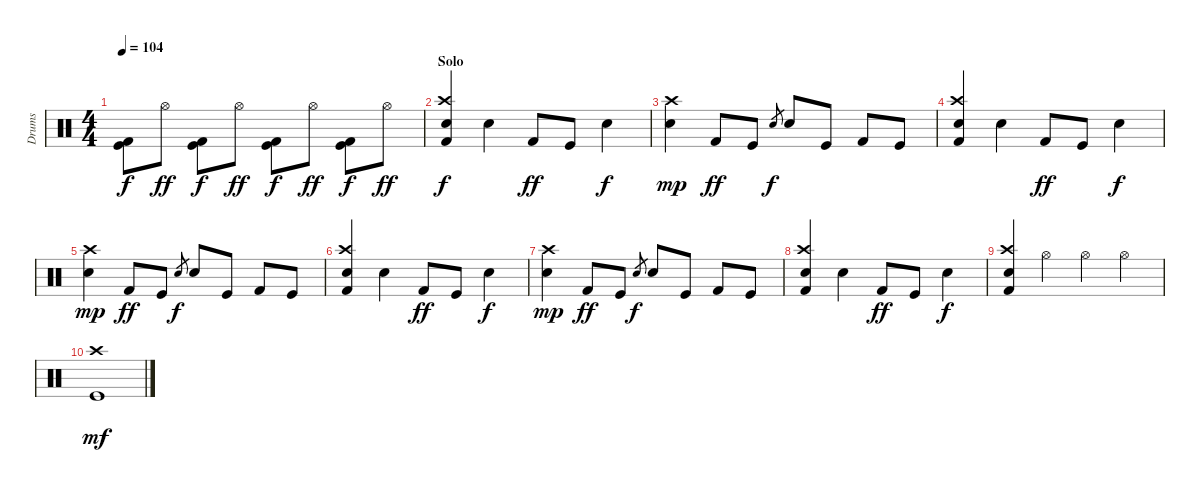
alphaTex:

\track ("Drums" "Drums") {instrument percussion}
\staff {score}
\articulation defaults
\ts (4 4)
\tempo 104
\clef neutral
\ks c
("Kick (hit)" "Kick (hit) 2").8{dy f} "Hi-Hat (open)".8{dy ff} ("Kick (hit)" "Kick (hit) 2").8{dy f} "Hi-Hat (open)".8{dy ff} ("Kick (hit)" "Kick (hit) 2").8{dy f} "Hi-Hat (open)".8{dy ff} ("Kick (hit)" "Kick (hit) 2").8{dy f} "Hi-Hat (open)".8{dy ff} |
\section ("" "Solo")
("Crash high (hit)" "Kick (hit) 2" "Electric Snare (hit)").4{dy f} "Snare (hit) 2".4 "Kick (hit) 2".8{dy ff} "Kick (hit)".8 "Snare (hit) 2".4{dy f} |
("Crash high (hit)" "Snare (hit) 2").4{dy mp} "Kick (hit) 2".8{dy ff} "Kick (hit)".8 "Snare (hit) 2".8{gr dy f} "Electric Snare (hit)".8 "Kick (hit)".8 "Kick (hit) 2".8 "Kick (hit)".8 |
("Crash high (hit)" "Kick (hit) 2" "Electric Snare (hit)").4 "Snare (hit) 2".4 "Kick (hit) 2".8{dy ff} "Kick (hit)".8 "Snare (hit) 2".4{dy f} |
("Crash high (hit)" "Snare (hit) 2").4{dy mp} "Kick (hit) 2".8{dy ff} "Kick (hit)".8 "Snare (hit) 2".8{gr dy f} "Electric Snare (hit)".8 "Kick (hit)".8 "Kick (hit) 2".8 "Kick (hit)".8 |
("Crash high (hit)" "Kick (hit) 2" "Electric Snare (hit)").4 "Snare (hit) 2".4 "Kick (hit) 2".8{dy ff} "Kick (hit)".8 "Snare (hit) 2".4{dy f} |
("Crash high (hit)" "Snare (hit) 2").4{dy mp} "Kick (hit) 2".8{dy ff} "Kick (hit)".8 "Snare (hit) 2".8{gr dy f} "Electric Snare (hit)".8 "Kick (hit)".8 "Kick (hit) 2".8 "Kick (hit)".8 |
("Crash high (hit)" "Kick (hit) 2" "Electric Snare (hit)").4 "Snare (hit) 2".4 "Kick (hit) 2".8{dy ff} "Kick (hit)".8 "Snare (hit) 2".4{dy f} |
("Crash high (hit)" "Kick (hit) 2" "Snare (hit) 2").4 "Hi-Hat (open)".4 "Hi-Hat (open)".4 "Hi-Hat (open)".4 |
("Crash high (hit)" "Kick (hit)").1{dy mf volume 12}
